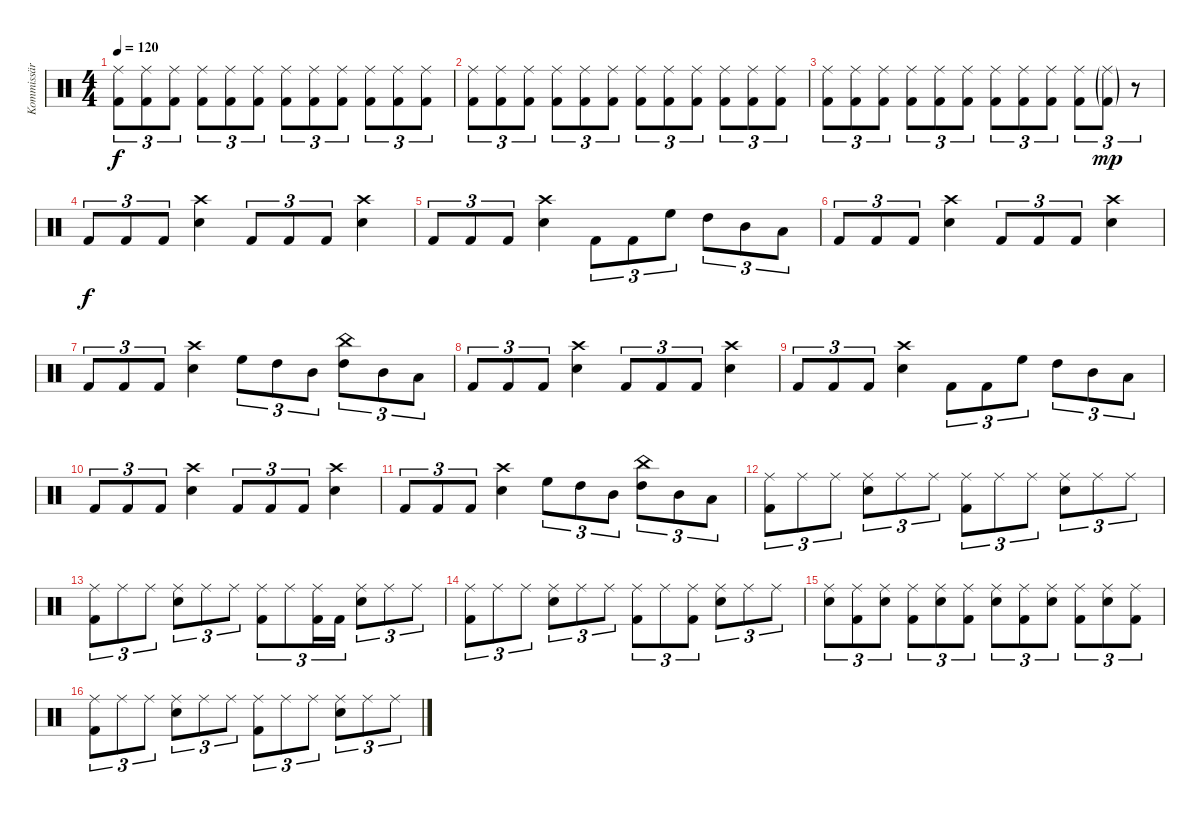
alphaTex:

\track ("Kommissär Ogrim" "Kommissär ") {instrument percussion}
\staff {score}
\articulation defaults
\ts (4 4)
\tempo 120
\clef neutral
\ks c
("Ride (middle)" "Kick (hit) 2").8{tu (3 2) dy f} ("Ride (middle)" "Kick (hit) 2").8{tu (3 2)} ("Ride (middle)" "Kick (hit) 2").8{tu (3 2)} ("Ride (middle)" "Kick (hit) 2").8{tu (3 2)} ("Ride (middle)" "Kick (hit) 2").8{tu (3 2)} ("Ride (middle)" "Kick (hit) 2").8{tu (3 2)} ("Ride (middle)" "Kick (hit) 2").8{tu (3 2)} ("Ride (middle)" "Kick (hit) 2").8{tu (3 2)} ("Ride (middle)" "Kick (hit) 2").8{tu (3 2)} ("Ride (middle)" "Kick (hit) 2").8{tu (3 2)} ("Ride (middle)" "Kick (hit) 2").8{tu (3 2)} ("Ride (middle)" "Kick (hit) 2").8{tu (3 2)} |
("Ride (middle)" "Kick (hit) 2").8{tu (3 2)} ("Ride (middle)" "Kick (hit) 2").8{tu (3 2)} ("Ride (middle)" "Kick (hit) 2").8{tu (3 2)} ("Ride (middle)" "Kick (hit) 2").8{tu (3 2)} ("Ride (middle)" "Kick (hit) 2").8{tu (3 2)} ("Ride (middle)" "Kick (hit) 2").8{tu (3 2)} ("Ride (middle)" "Kick (hit) 2").8{tu (3 2)} ("Ride (middle)" "Kick (hit) 2").8{tu (3 2)} ("Ride (middle)" "Kick (hit) 2").8{tu (3 2)} ("Ride (middle)" "Kick (hit) 2").8{tu (3 2)} ("Ride (middle)" "Kick (hit) 2").8{tu (3 2)} ("Ride (middle)" "Kick (hit) 2").8{tu (3 2)} |
("Ride (middle)" "Kick (hit) 2").8{tu (3 2)} ("Ride (middle)" "Kick (hit) 2").8{tu (3 2)} ("Ride (middle)" "Kick (hit) 2").8{tu (3 2)} ("Ride (middle)" "Kick (hit) 2").8{tu (3 2)} ("Ride (middle)" "Kick (hit) 2").8{tu (3 2)} ("Ride (middle)" "Kick (hit) 2").8{tu (3 2)} ("Ride (middle)" "Kick (hit) 2").8{tu (3 2)} ("Ride (middle)" "Kick (hit) 2").8{tu (3 2)} ("Ride (middle)" "Kick (hit) 2").8{tu (3 2)} ("Ride (middle)" "Kick (hit) 2").8{tu (3 2)} ("Ride (middle)"{g} "Kick (hit) 2"{g}).8{tu (3 2) dy mp} r.8{tu (3 2)} |
"Kick (hit) 2".8{tu (3 2) dy f} "Kick (hit) 2".8{tu (3 2)} "Kick (hit) 2".8{tu (3 2)} ("Snare (hit) 2" "Crash high (hit)").4 "Kick (hit) 2".8{tu (3 2)} "Kick (hit) 2".8{tu (3 2)} "Kick (hit) 2".8{tu (3 2)} ("Snare (hit) 2" "Crash high (hit)").4 |
"Kick (hit) 2".8{tu (3 2)} "Kick (hit) 2".8{tu (3 2)} "Kick (hit) 2".8{tu (3 2)} ("Snare (hit) 2" "Crash high (hit)").4 "Kick (hit) 2".8{tu (3 2)} "Kick (hit) 2".8{tu (3 2)} "High Floor Tom (hit)".8{tu (3 2)} "High Tom (hit)".8{tu (3 2)} "Mid Tom (hit)".8{tu (3 2)} "Low Tom (hit)".8{tu (3 2)} |
"Kick (hit) 2".8{tu (3 2)} "Kick (hit) 2".8{tu (3 2)} "Kick (hit) 2".8{tu (3 2)} ("Snare (hit) 2" "Crash high (hit)").4 "Kick (hit) 2".8{tu (3 2)} "Kick (hit) 2".8{tu (3 2)} "Kick (hit) 2".8{tu (3 2)} ("Snare (hit) 2" "Crash high (hit)").4 |
"Kick (hit) 2".8{tu (3 2)} "Kick (hit) 2".8{tu (3 2)} "Kick (hit) 2".8{tu (3 2)} ("Snare (hit) 2" "Crash high (hit)").4 "High Floor Tom (hit)".8{tu (3 2)} "High Tom (hit)".8{tu (3 2)} "Mid Tom (hit)".8{tu (3 2)} ("China (hit)" "High Tom (hit)").8{tu (3 2)} "Mid Tom (hit)".8{tu (3 2)} "Low Tom (hit)".8{tu (3 2)} |
"Kick (hit) 2".8{tu (3 2)} "Kick (hit) 2".8{tu (3 2)} "Kick (hit) 2".8{tu (3 2)} ("Snare (hit) 2" "Crash high (hit)").4 "Kick (hit) 2".8{tu (3 2)} "Kick (hit) 2".8{tu (3 2)} "Kick (hit) 2".8{tu (3 2)} ("Snare (hit) 2" "Crash high (hit)").4 |
"Kick (hit) 2".8{tu (3 2)} "Kick (hit) 2".8{tu (3 2)} "Kick (hit) 2".8{tu (3 2)} ("Snare (hit) 2" "Crash high (hit)").4 "Kick (hit) 2".8{tu (3 2)} "Kick (hit) 2".8{tu (3 2)} "High Floor Tom (hit)".8{tu (3 2)} "High Tom (hit)".8{tu (3 2)} "Mid Tom (hit)".8{tu (3 2)} "Low Tom (hit)".8{tu (3 2)} |
"Kick (hit) 2".8{tu (3 2)} "Kick (hit) 2".8{tu (3 2)} "Kick (hit) 2".8{tu (3 2)} ("Snare (hit) 2" "Crash high (hit)").4 "Kick (hit) 2".8{tu (3 2)} "Kick (hit) 2".8{tu (3 2)} "Kick (hit) 2".8{tu (3 2)} ("Snare (hit) 2" "Crash high (hit)").4 |
"Kick (hit) 2".8{tu (3 2)} "Kick (hit) 2".8{tu (3 2)} "Kick (hit) 2".8{tu (3 2)} ("Snare (hit) 2" "Crash high (hit)").4 "High Floor Tom (hit)".8{tu (3 2)} "High Tom (hit)".8{tu (3 2)} "Mid Tom (hit)".8{tu (3 2)} ("China (hit)" "High Tom (hit)").8{tu (3 2)} "Mid Tom (hit)".8{tu (3 2)} "Low Tom (hit)".8{tu (3 2)} |
("Ride (middle)" "Kick (hit) 2").8{tu (3 2)} "Ride (middle)".8{tu (3 2)} "Ride (middle)".8{tu (3 2)} ("Snare (hit) 2" "Ride (middle)").8{tu (3 2)} "Ride (middle)".8{tu (3 2)} "Ride (middle)".8{tu (3 2)} ("Ride (middle)" "Kick (hit) 2").8{tu (3 2)} "Ride (middle)".8{tu (3 2)} "Ride (middle)".8{tu (3 2)} ("Snare (hit) 2" "Ride (middle)").8{tu (3 2)} "Ride (middle)".8{tu (3 2)} "Ride (middle)".8{tu (3 2)} |
("Ride (middle)" "Kick (hit) 2").8{tu (3 2)} "Ride (middle)".8{tu (3 2)} "Ride (middle)".8{tu (3 2)} ("Snare (hit) 2" "Ride (middle)").8{tu (3 2)} "Ride (middle)".8{tu (3 2)} "Ride (middle)".8{tu (3 2)} ("Ride (middle)" "Kick (hit) 2").8{tu (3 2)} "Ride (middle)".8{tu (3 2)} ("Ride (middle)" "Kick (hit) 2").16{tu (3 2)} "Kick (hit) 2".16{tu (3 2)} ("Snare (hit) 2" "Ride (middle)").8{tu (3 2)} "Ride (middle)".8{tu (3 2)} "Ride (middle)".8{tu (3 2)} |
("Ride (middle)" "Kick (hit) 2").8{tu (3 2)} "Ride (middle)".8{tu (3 2)} "Ride (middle)".8{tu (3 2)} ("Snare (hit) 2" "Ride (middle)").8{tu (3 2)} "Ride (middle)".8{tu (3 2)} "Ride (middle)".8{tu (3 2)} ("Ride (middle)" "Kick (hit) 2").8{tu (3 2)} "Ride (middle)".8{tu (3 2)} ("Ride (middle)" "Kick (hit) 2").8{tu (3 2)} ("Snare (hit) 2" "Ride (middle)").8{tu (3 2)} "Ride (middle)".8{tu (3 2)} "Ride (middle)".8{tu (3 2)} |
("Snare (hit) 2" "Ride (middle)").8{tu (3 2)} ("Ride (middle)" "Kick (hit) 2").8{tu (3 2)} ("Snare (hit) 2" "Ride (middle)").8{tu (3 2)} ("Ride (middle)" "Kick (hit) 2").8{tu (3 2)} ("Snare (hit) 2" "Ride (middle)").8{tu (3 2)} ("Ride (middle)" "Kick (hit) 2").8{tu (3 2)} ("Snare (hit) 2" "Ride (middle)").8{tu (3 2)} ("Ride (middle)" "Kick (hit) 2").8{tu (3 2)} ("Snare (hit) 2" "Ride (middle)").8{tu (3 2)} ("Ride (middle)" "Kick (hit) 2").8{tu (3 2)} ("Snare (hit) 2" "Ride (middle)").8{tu (3 2)} ("Ride (middle)" "Kick (hit) 2").8{tu (3 2)} |
("Ride (middle)" "Kick (hit) 2").8{tu (3 2)} "Ride (middle)".8{tu (3 2)} "Ride (middle)".8{tu (3 2)} ("Snare (hit) 2" "Ride (middle)").8{tu (3 2)} "Ride (middle)".8{tu (3 2)} "Ride (middle)".8{tu (3 2)} ("Ride (middle)" "Kick (hit) 2").8{tu (3 2)} "Ride (middle)".8{tu (3 2)} "Ride (middle)".8{tu (3 2)} ("Snare (hit) 2" "Ride (middle)").8{tu (3 2)} "Ride (middle)".8{tu (3 2)} "Ride (middle)".8{tu (3 2)}
